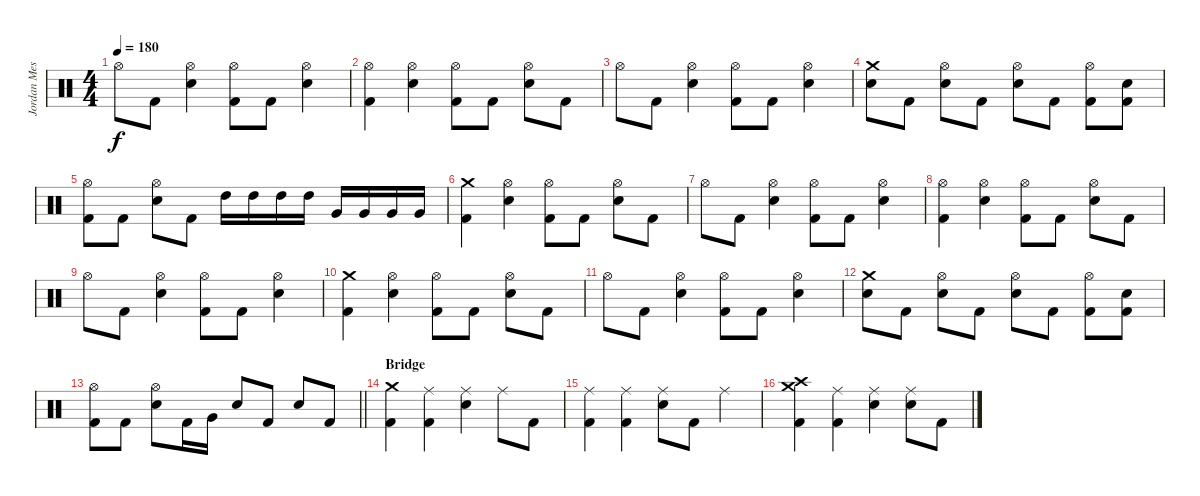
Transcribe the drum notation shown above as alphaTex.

\track ("Jordan Messer " "Jordan Mes") {instrument percussion}
\staff {score}
\articulation defaults
\ts (4 4)
\tempo 180
\clef neutral
\ks c "Hi-Hat (open)".8{dy f} "Kick (hit) 2".8
("Hi-Hat (open)" "Snare (hit) 2").4 ("Hi-Hat (open)" "Kick (hit) 2").8 "Kick (hit) 2".8 ("Hi-Hat (open)" "Snare (hit) 2").4 |
("Hi-Hat (open)" "Kick (hit) 2").4 ("Hi-Hat (open)" "Snare (hit) 2").4 ("Hi-Hat (open)" "Kick (hit) 2").8 "Kick (hit) 2".8 ("Hi-Hat (open)" "Snare (hit) 2").8 "Kick (hit) 2".8 |
"Hi-Hat (open)".8 "Kick (hit) 2".8 ("Hi-Hat (open)" "Snare (hit) 2").4 ("Hi-Hat (open)" "Kick (hit) 2").8 "Kick (hit) 2".8 ("Hi-Hat (open)" "Snare (hit) 2").4 |
("Crash medium (hit)" "Snare (hit) 2").8 "Kick (hit) 2".8 ("Hi-Hat (open)" "Snare (hit) 2").8 "Kick (hit) 2".8 ("Hi-Hat (open)" "Snare (hit) 2").8 "Kick (hit) 2".8 ("Hi-Hat (open)" "Kick (hit) 2").8 ("Snare (hit) 2" "Kick (hit) 2").8 |
("Hi-Hat (open)" "Kick (hit) 2").8 "Kick (hit) 2".8 ("Hi-Hat (open)" "Snare (hit) 2").8 "Kick (hit) 2".8 "High Tom (hit)".16 "High Tom (hit)".16 "High Tom (hit)".16 "High Tom (hit)".16 "Very Low Tom (hit)".16 "Very Low Tom (hit)".16 "Very Low Tom (hit)".16 "Very Low Tom (hit)".16 |
("Crash medium (hit)" "Kick (hit) 2").4 ("Hi-Hat (open)" "Snare (hit) 2").4 ("Hi-Hat (open)" "Kick (hit) 2").8 "Kick (hit) 2".8 ("Hi-Hat (open)" "Snare (hit) 2").8 "Kick (hit) 2".8 |
"Hi-Hat (open)".8 "Kick (hit) 2".8 ("Hi-Hat (open)" "Snare (hit) 2").4 ("Hi-Hat (open)" "Kick (hit) 2").8 "Kick (hit) 2".8 ("Hi-Hat (open)" "Snare (hit) 2").4 |
("Hi-Hat (open)" "Kick (hit) 2").4 ("Hi-Hat (open)" "Snare (hit) 2").4 ("Hi-Hat (open)" "Kick (hit) 2").8 "Kick (hit) 2".8 ("Hi-Hat (open)" "Snare (hit) 2").8 "Kick (hit) 2".8 |
"Hi-Hat (open)".8 "Kick (hit) 2".8 ("Hi-Hat (open)" "Snare (hit) 2").4 ("Hi-Hat (open)" "Kick (hit) 2").8 "Kick (hit) 2".8 ("Hi-Hat (open)" "Snare (hit) 2").4 |
("Crash medium (hit)" "Kick (hit) 2").4 ("Hi-Hat (open)" "Snare (hit) 2").4 ("Hi-Hat (open)" "Kick (hit) 2").8 "Kick (hit) 2".8 ("Hi-Hat (open)" "Snare (hit) 2").8 "Kick (hit) 2".8 |
"Hi-Hat (open)".8 "Kick (hit) 2".8 ("Hi-Hat (open)" "Snare (hit) 2").4 ("Hi-Hat (open)" "Kick (hit) 2").8 "Kick (hit) 2".8 ("Hi-Hat (open)" "Snare (hit) 2").4 |
("Crash medium (hit)" "Snare (hit) 2").8 "Kick (hit) 2".8 ("Hi-Hat (open)" "Snare (hit) 2").8 "Kick (hit) 2".8 ("Hi-Hat (open)" "Snare (hit) 2").8 "Kick (hit) 2".8 ("Hi-Hat (open)" "Kick (hit) 2").8 ("Snare (hit) 2" "Kick (hit) 2").8 |
\barLineRight lightlight
("Hi-Hat (open)" "Kick (hit) 2").8 "Kick (hit) 2".8 ("Hi-Hat (open)" "Snare (hit) 2").8 "Kick (hit) 2".16 "Very Low Tom (hit)".16 "Snare (hit) 2".8 "Kick (hit) 2".8 "Snare (hit) 2".8 "Kick (hit) 2".8 |
\section ("" "Bridge")
("Crash medium (hit)" "Kick (hit) 2").4 ("Ride (middle)" "Kick (hit) 2").4 ("Ride (middle)" "Snare (hit) 2").4 "Ride (middle)".8 "Kick (hit) 2".8 |
("Ride (middle)" "Kick (hit) 2").4 ("Ride (middle)" "Kick (hit) 2").4 ("Ride (middle)" "Snare (hit) 2").8 "Kick (hit) 2".8 "Ride (middle)".4 |
("Crash medium (hit)" "Crash high (hit)" "Kick (hit) 2").4 ("Ride (middle)" "Kick (hit) 2").4 ("Ride (middle)" "Snare (hit) 2").4 ("Ride (middle)" "Snare (hit) 2").8 "Kick (hit) 2".8
